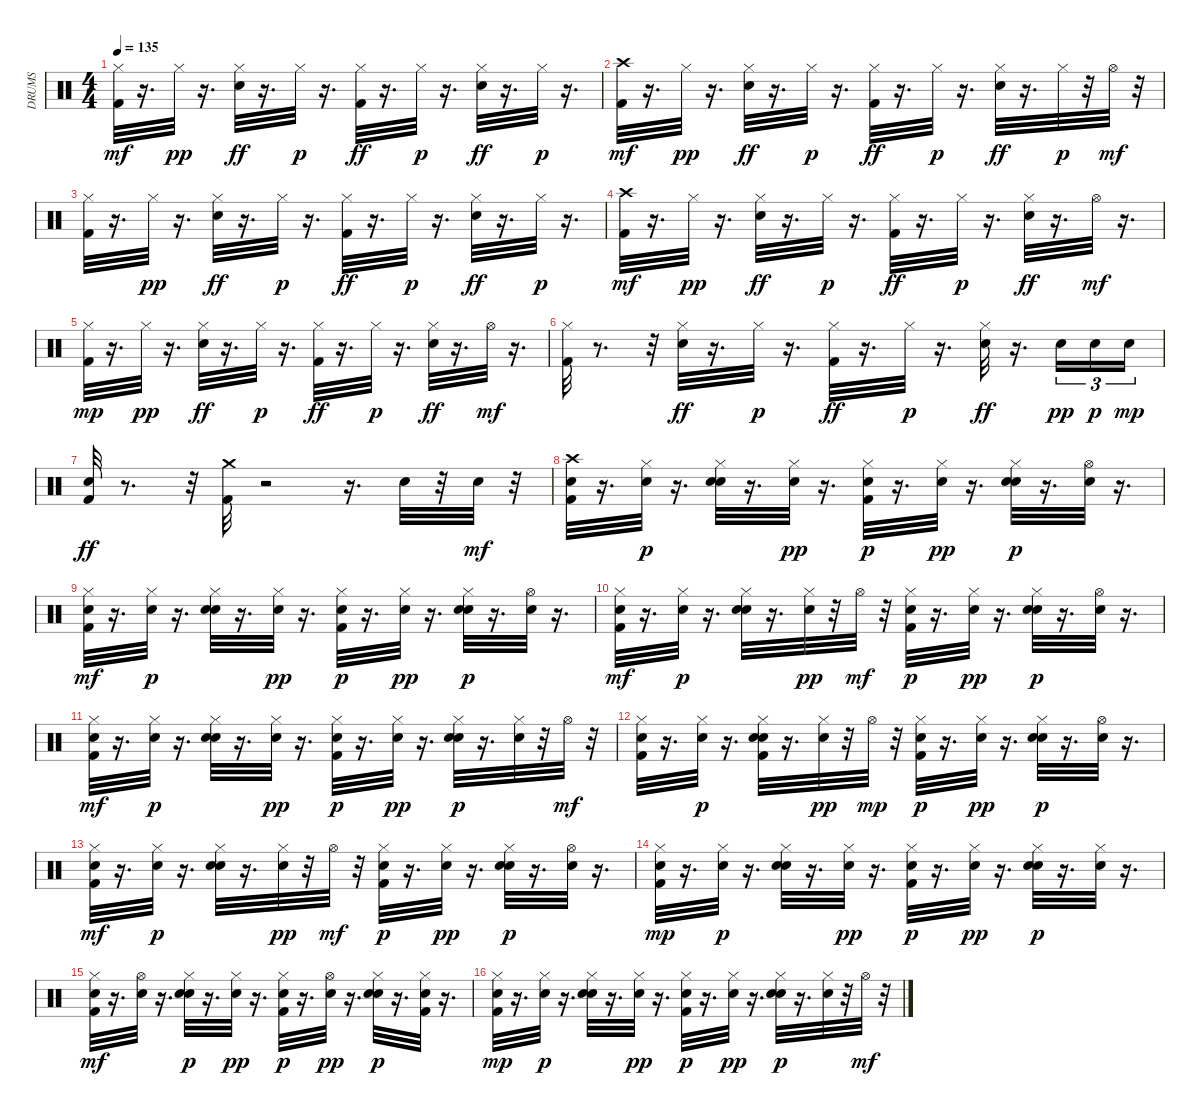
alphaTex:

\track ("DRUMS" "DRUMS") {instrument percussion}
\staff {score}
\articulation defaults
\ts (4 4)
\tempo 135
\clef neutral
\ks c
("Kick (hit) 2" "Hi-Hat (closed)").32{dy mf} r.16{d} "Hi-Hat (closed)".32{dy pp} r.16{d} ("Hi-Hat (closed)" "Electric Snare (hit)").32{dy ff} r.16{d} "Hi-Hat (closed)".32{dy p} r.16{d} ("Hi-Hat (closed)" "Kick (hit) 2").32{dy ff} r.16{d} "Hi-Hat (closed)".32{dy p} r.16{d} ("Electric Snare (hit)" "Hi-Hat (closed)").32{dy ff} r.16{d} "Hi-Hat (closed)".32{dy p} r.16{d} |
("Kick (hit) 2" "Crash high (hit)").32{dy mf} r.16{d} "Hi-Hat (closed)".32{dy pp} r.16{d} ("Hi-Hat (closed)" "Electric Snare (hit)").32{dy ff} r.16{d} "Hi-Hat (closed)".32{dy p} r.16{d} ("Hi-Hat (closed)" "Kick (hit) 2").32{dy ff} r.16{d} "Hi-Hat (closed)".32{dy p} r.16{d} ("Electric Snare (hit)" "Hi-Hat (closed)").32{dy ff} r.16{d} "Hi-Hat (closed)".32{dy p} r.32 "Hi-Hat (open)".32{dy mf} r.32 |
("Kick (hit) 2" "Hi-Hat (closed)").32 r.16{d} "Hi-Hat (closed)".32{dy pp} r.16{d} ("Hi-Hat (closed)" "Electric Snare (hit)").32{dy ff} r.16{d} "Hi-Hat (closed)".32{dy p} r.16{d} ("Hi-Hat (closed)" "Kick (hit) 2").32{dy ff} r.16{d} "Hi-Hat (closed)".32{dy p} r.16{d} ("Electric Snare (hit)" "Hi-Hat (closed)").32{dy ff} r.16{d} "Hi-Hat (closed)".32{dy p} r.16{d} |
("Kick (hit) 2" "Crash high (hit)").32{dy mf} r.16{d} "Hi-Hat (closed)".32{dy pp} r.16{d} ("Hi-Hat (closed)" "Electric Snare (hit)").32{dy ff} r.16{d} "Hi-Hat (closed)".32{dy p} r.16{d} ("Hi-Hat (closed)" "Kick (hit) 2").32{dy ff} r.16{d} "Hi-Hat (closed)".32{dy p} r.16{d} ("Electric Snare (hit)" "Hi-Hat (closed)").32{dy ff} r.16{d} "Hi-Hat (open)".32{dy mf} r.16{d} |
("Kick (hit) 2" "Hi-Hat (closed)").32{dy mp} r.16{d} "Hi-Hat (closed)".32{dy pp} r.16{d} ("Hi-Hat (closed)" "Electric Snare (hit)").32{dy ff} r.16{d} "Hi-Hat (closed)".32{dy p} r.16{d} ("Hi-Hat (closed)" "Kick (hit) 2").32{dy ff} r.16{d} "Hi-Hat (closed)".32{dy p} r.16{d} ("Electric Snare (hit)" "Hi-Hat (closed)").32{dy ff} r.16{d} "Hi-Hat (open)".32{dy mf} r.16{d} |
("Kick (hit) 2" "Hi-Hat (closed)").32 r.8{d} r.32 ("Hi-Hat (closed)" "Electric Snare (hit)").32{dy ff} r.16{d} "Hi-Hat (closed)".32{dy p} r.16{d} ("Hi-Hat (closed)" "Kick (hit) 2").32{dy ff} r.16{d} "Hi-Hat (closed)".32{dy p} r.16{d} ("Electric Snare (hit)" "Hi-Hat (closed)").32{dy ff} r.16{d} "Electric Snare (hit)".16{tu (3 2) dy pp} "Electric Snare (hit)".16{tu (3 2) dy p} "Electric Snare (hit)".16{tu (3 2) dy mp} |
("Electric Snare (hit)" "Kick (hit) 2").32{dy ff} r.8{d} r.32 ("Crash medium (hit)" "Kick (hit) 2").32 r.2 r.16{d} "Electric Snare (hit)".32 r.32 "Electric Snare (hit)".32{dy mf} r.32 |
("Kick (hit) 2" "Hand Clap (hit)" "Crash high (hit)").32 r.16{d} ("Hi-Hat (closed)" "Hand Clap (hit)").32{dy p} r.16{d} ("Hi-Hat (closed)" "Electric Snare (hit)" "Hand Clap (hit)").32 r.16{d} ("Hi-Hat (closed)" "Hand Clap (hit)").32{dy pp} r.16{d} ("Hi-Hat (closed)" "Kick (hit) 2" "Hand Clap (hit)").32{dy p} r.16{d} ("Hi-Hat (closed)" "Hand Clap (hit)").32{dy pp} r.16{d} ("Electric Snare (hit)" "Hi-Hat (closed)" "Hand Clap (hit)").32{dy p} r.16{d} ("Hi-Hat (open)" "Hand Clap (hit)").32 r.16{d} |
("Kick (hit) 2" "Hand Clap (hit)" "Hi-Hat (closed)").32{dy mf} r.16{d} ("Hi-Hat (closed)" "Hand Clap (hit)").32{dy p} r.16{d} ("Hi-Hat (closed)" "Electric Snare (hit)" "Hand Clap (hit)").32 r.16{d} ("Hi-Hat (closed)" "Hand Clap (hit)").32{dy pp} r.16{d} ("Kick (hit) 2" "Hi-Hat (closed)" "Hand Clap (hit)").32{dy p} r.16{d} ("Hi-Hat (closed)" "Hand Clap (hit)").32{dy pp} r.16{d} ("Hi-Hat (closed)" "Electric Snare (hit)" "Hand Clap (hit)").32{dy p} r.16{d} ("Hi-Hat (open)" "Hand Clap (hit)").32 r.16{d} |
("Kick (hit) 2" "Hand Clap (hit)" "Hi-Hat (closed)").32{dy mf} r.16{d} ("Hi-Hat (closed)" "Hand Clap (hit)").32{dy p} r.16{d} ("Hi-Hat (closed)" "Electric Snare (hit)" "Hand Clap (hit)").32 r.16{d} ("Hi-Hat (closed)" "Hand Clap (hit)").32{dy pp} r.32 "Hi-Hat (open)".32{dy mf} r.32 ("Hi-Hat (closed)" "Kick (hit) 2" "Hand Clap (hit)").32{dy p} r.16{d} ("Hi-Hat (closed)" "Hand Clap (hit)").32{dy pp} r.16{d} ("Electric Snare (hit)" "Hi-Hat (closed)" "Hand Clap (hit)").32{dy p} r.16{d} ("Hi-Hat (open)" "Hand Clap (hit)").32 r.16{d} |
("Kick (hit) 2" "Hand Clap (hit)" "Hi-Hat (closed)").32{dy mf} r.16{d} ("Hi-Hat (closed)" "Hand Clap (hit)").32{dy p} r.16{d} ("Hi-Hat (closed)" "Electric Snare (hit)" "Hand Clap (hit)").32 r.16{d} ("Hi-Hat (closed)" "Hand Clap (hit)").32{dy pp} r.16{d} ("Kick (hit) 2" "Hi-Hat (closed)" "Hand Clap (hit)").32{dy p} r.16{d} ("Hi-Hat (closed)" "Hand Clap (hit)").32{dy pp} r.16{d} ("Hi-Hat (closed)" "Electric Snare (hit)" "Hand Clap (hit)").32{dy p} r.16{d} ("Hi-Hat (closed)" "Hand Clap (hit)").32 r.32 "Hi-Hat (open)".32{dy mf} r.32 |
("Kick (hit) 2" "Hand Clap (hit)" "Hi-Hat (closed)").32 r.16{d} ("Hi-Hat (closed)" "Hand Clap (hit)").32{dy p} r.16{d} ("Hi-Hat (closed)" "Electric Snare (hit)" "Kick (hit) 2" "Hand Clap (hit)").32 r.16{d} ("Hi-Hat (closed)" "Hand Clap (hit)").32{dy pp} r.32 "Hi-Hat (open)".32{dy mp} r.32 ("Hi-Hat (closed)" "Kick (hit) 2" "Hand Clap (hit)").32{dy p} r.16{d} ("Hi-Hat (closed)" "Hand Clap (hit)").32{dy pp} r.16{d} ("Electric Snare (hit)" "Hi-Hat (closed)" "Hand Clap (hit)").32{dy p} r.16{d} ("Hi-Hat (open)" "Hand Clap (hit)").32 r.16{d} |
("Kick (hit) 2" "Hand Clap (hit)" "Hi-Hat (closed)").32{dy mf} r.16{d} ("Hi-Hat (closed)" "Hand Clap (hit)").32{dy p} r.16{d} ("Hi-Hat (closed)" "Electric Snare (hit)" "Hand Clap (hit)").32 r.16{d} ("Hi-Hat (closed)" "Hand Clap (hit)").32{dy pp} r.32 "Hi-Hat (open)".32{dy mf} r.32 ("Kick (hit) 2" "Hi-Hat (closed)" "Hand Clap (hit)").32{dy p} r.16{d} ("Hi-Hat (closed)" "Hand Clap (hit)").32{dy pp} r.16{d} ("Hi-Hat (closed)" "Electric Snare (hit)" "Hand Clap (hit)").32{dy p} r.16{d} ("Hi-Hat (open)" "Hand Clap (hit)").32 r.16{d} |
("Kick (hit) 2" "Hand Clap (hit)" "Hi-Hat (closed)").32{dy mp} r.16{d} ("Hi-Hat (closed)" "Hand Clap (hit)").32{dy p} r.16{d} ("Hi-Hat (closed)" "Electric Snare (hit)" "Hand Clap (hit)").32 r.16{d} ("Hi-Hat (closed)" "Hand Clap (hit)").32{dy pp} r.16{d} ("Kick (hit) 2" "Hi-Hat (closed)" "Hand Clap (hit)").32{dy p} r.16{d} ("Hi-Hat (closed)" "Hand Clap (hit)").32{dy pp} r.16{d} ("Hi-Hat (closed)" "Electric Snare (hit)" "Hand Clap (hit)").32{dy p} r.16{d} ("Hi-Hat (closed)" "Hand Clap (hit)").32 r.16{d} |
("Kick (hit) 2" "Hand Clap (hit)" "Hi-Hat (closed)").32{dy mf} r.16{d} ("Hand Clap (hit)" "Hi-Hat (open)").32 r.16{d} ("Hi-Hat (closed)" "Electric Snare (hit)" "Hand Clap (hit)").32{dy p} r.16{d} ("Hi-Hat (closed)" "Hand Clap (hit)").32{dy pp} r.16{d} ("Hi-Hat (closed)" "Kick (hit) 2" "Hand Clap (hit)").32{dy p} r.16{d} ("Hi-Hat (open)" "Hand Clap (hit)").32{dy pp} r.16{d} ("Electric Snare (hit)" "Hi-Hat (closed)" "Hand Clap (hit)").32{dy p} r.16{d} ("Hi-Hat (closed)" "Kick (hit) 2" "Hand Clap (hit)").32 r.16{d} |
("Hi-Hat (closed)" "Kick (hit) 2" "Hand Clap (hit)").32{dy mp} r.16{d} ("Hi-Hat (closed)" "Hand Clap (hit)").32{dy p} r.16{d} ("Hi-Hat (closed)" "Electric Snare (hit)" "Hand Clap (hit)").32 r.16{d} ("Hi-Hat (closed)" "Hand Clap (hit)").32{dy pp} r.16{d} ("Kick (hit) 2" "Hi-Hat (closed)" "Hand Clap (hit)").32{dy p} r.16{d} ("Hi-Hat (closed)" "Hand Clap (hit)").32{dy pp} r.16{d} ("Hi-Hat (closed)" "Electric Snare (hit)" "Hand Clap (hit)").32{dy p} r.16{d} ("Hi-Hat (closed)" "Hand Clap (hit)").32 r.32 "Hi-Hat (open)".32{dy mf} r.32
